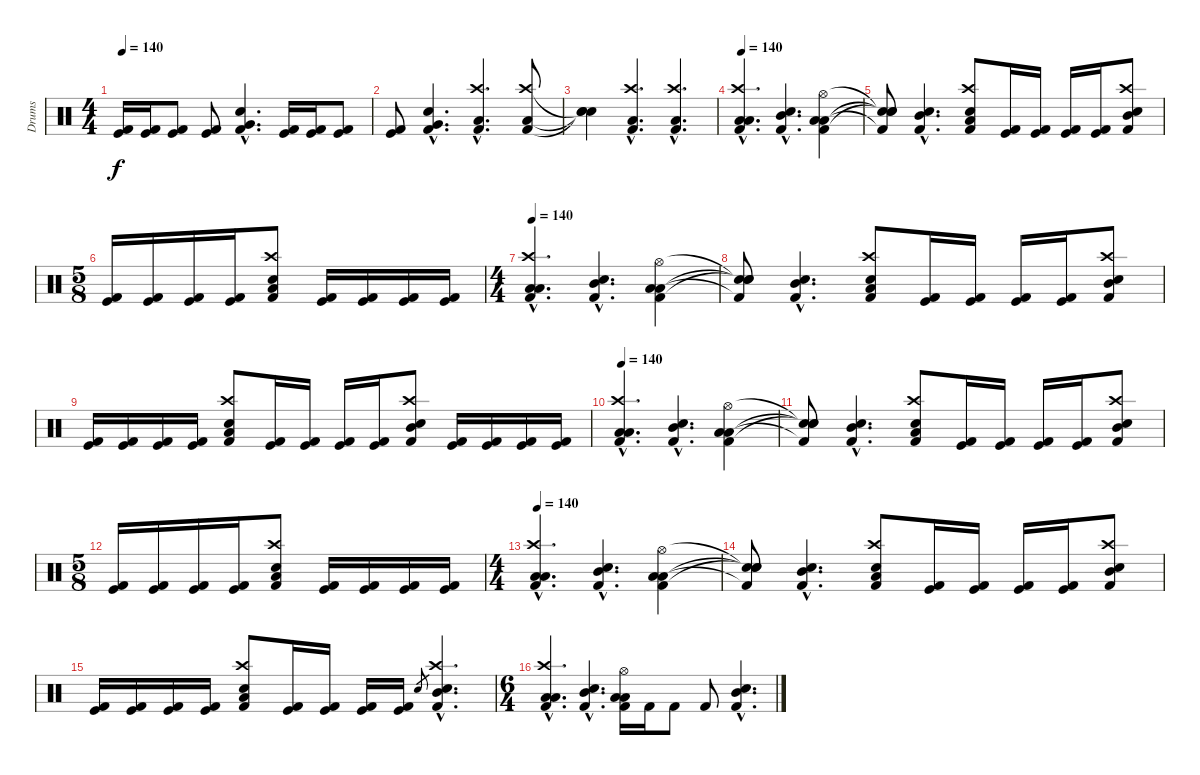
\track ("Drums" "Drums") {instrument percussion}
\staff {score}
\articulation defaults
\ts (4 4)
\tempo 140
\clef neutral
\ks c
("Kick (hit)" "Kick (hit) 2").16{dy f} ("Kick (hit)" "Kick (hit) 2").16 ("Kick (hit)" "Kick (hit) 2").8 ("Kick (hit)" "Kick (hit) 2").8 ("Very Low Tom (hit)"{hac} "Electric Snare (hit)"{hac} "Kick (hit) 2"{hac}).4{d} ("Kick (hit)" "Kick (hit) 2").16 ("Kick (hit)" "Kick (hit) 2").16 ("Kick (hit)" "Kick (hit) 2").8 |
("Kick (hit)" "Kick (hit) 2").8 ("Very Low Tom (hit)"{hac} "Electric Snare (hit)"{hac} "Kick (hit) 2"{hac}).4{d} ("Crash high (hit)"{hac} "Low Tom (hit)"{hac} "Kick (hit) 2"{hac}).4{d} ("Crash high (hit)" "Low Tom (hit)" "Kick (hit) 2").8 |
("Snare (hit)"{t} "Snare (hit)"{t} "Snare (hit)"{t}).4 ("Crash high (hit)"{hac} "Low Tom (hit)"{hac} "Kick (hit) 2"{hac}).4{d} ("Crash high (hit)"{hac} "Low Tom (hit)"{hac} "Kick (hit) 2"{hac}).4{d} |
\tempo 140
("Crash high (hit)"{hac} "Low Tom (hit)"{hac} "Low Tom (hit)"{hac} "Kick (hit) 2"{hac}).4{d} ("Mid Tom (hit)"{hac} "Snare (hit) 2"{hac} "Kick (hit) 2"{hac}).4{d} ("Hi-Hat (open)" "Low Tom (hit)" "Low Tom (hit)" "Kick (hit) 2").4 |
("Snare (hit)"{t} "Snare (hit)"{t} "Kick (hit) 2"{t} "Snare (hit)"{t}).8 ("Mid Tom (hit)"{hac} "Snare (hit) 2"{hac} "Kick (hit) 2"{hac}).4{d} ("Crash high (hit)" "Snare (hit) 2" "Low Tom (hit)" "Kick (hit) 2").8 ("Kick (hit)" "Kick (hit) 2").16 ("Kick (hit)" "Kick (hit) 2").16 ("Kick (hit)" "Kick (hit) 2").16 ("Kick (hit)" "Kick (hit) 2").16 ("Crash high (hit)" "Snare (hit) 2" "Mid Tom (hit)" "Kick (hit) 2").8 |
\ts (5 8)
("Kick (hit)" "Kick (hit) 2").16 ("Kick (hit)" "Kick (hit) 2").16 ("Kick (hit)" "Kick (hit) 2").16 ("Kick (hit)" "Kick (hit) 2").16 ("Crash high (hit)" "Snare (hit) 2" "Low Tom (hit)" "Kick (hit) 2").8 ("Kick (hit)" "Kick (hit) 2").16 ("Kick (hit)" "Kick (hit) 2").16 ("Kick (hit)" "Kick (hit) 2").16 ("Kick (hit)" "Kick (hit) 2").16 |
\ts (4 4)
\tempo 140
("Crash high (hit)"{hac} "Low Tom (hit)"{hac} "Low Tom (hit)"{hac} "Kick (hit) 2"{hac}).4{d} ("Mid Tom (hit)"{hac} "Snare (hit) 2"{hac} "Kick (hit) 2"{hac}).4{d} ("Hi-Hat (open)" "Low Tom (hit)" "Low Tom (hit)" "Kick (hit) 2").4 |
("Snare (hit)"{t} "Snare (hit)"{t} "Kick (hit) 2"{t} "Snare (hit)"{t}).8 ("Mid Tom (hit)"{hac} "Snare (hit) 2"{hac} "Kick (hit) 2"{hac}).4{d} ("Crash high (hit)" "Snare (hit) 2" "Low Tom (hit)" "Kick (hit) 2").8 ("Kick (hit)" "Kick (hit) 2").16 ("Kick (hit)" "Kick (hit) 2").16 ("Kick (hit)" "Kick (hit) 2").16 ("Kick (hit)" "Kick (hit) 2").16 ("Crash high (hit)" "Snare (hit) 2" "Mid Tom (hit)" "Kick (hit) 2").8 |
("Kick (hit)" "Kick (hit) 2").16 ("Kick (hit)" "Kick (hit) 2").16 ("Kick (hit)" "Kick (hit) 2").16 ("Kick (hit)" "Kick (hit) 2").16 ("Crash high (hit)" "Snare (hit) 2" "Low Tom (hit)" "Kick (hit) 2").8 ("Kick (hit)" "Kick (hit) 2").16 ("Kick (hit)" "Kick (hit) 2").16 ("Kick (hit)" "Kick (hit) 2").16 ("Kick (hit)" "Kick (hit) 2").16 ("Crash high (hit)" "Snare (hit) 2" "Mid Tom (hit)" "Kick (hit) 2").8 ("Kick (hit)" "Kick (hit) 2").16 ("Kick (hit)" "Kick (hit) 2").16 ("Kick (hit)" "Kick (hit) 2").16 ("Kick (hit)" "Kick (hit) 2").16 |
\tempo 140
("Crash high (hit)"{hac} "Low Tom (hit)"{hac} "Low Tom (hit)"{hac} "Kick (hit) 2"{hac}).4{d} ("Mid Tom (hit)"{hac} "Snare (hit) 2"{hac} "Kick (hit) 2"{hac}).4{d} ("Hi-Hat (open)" "Low Tom (hit)" "Low Tom (hit)" "Kick (hit) 2").4 |
("Snare (hit)"{t} "Snare (hit)"{t} "Kick (hit) 2"{t} "Snare (hit)"{t}).8 ("Mid Tom (hit)"{hac} "Snare (hit) 2"{hac} "Kick (hit) 2"{hac}).4{d} ("Crash high (hit)" "Snare (hit) 2" "Low Tom (hit)" "Kick (hit) 2").8 ("Kick (hit)" "Kick (hit) 2").16 ("Kick (hit)" "Kick (hit) 2").16 ("Kick (hit)" "Kick (hit) 2").16 ("Kick (hit)" "Kick (hit) 2").16 ("Crash high (hit)" "Snare (hit) 2" "Mid Tom (hit)" "Kick (hit) 2").8 |
\ts (5 8)
("Kick (hit)" "Kick (hit) 2").16 ("Kick (hit)" "Kick (hit) 2").16 ("Kick (hit)" "Kick (hit) 2").16 ("Kick (hit)" "Kick (hit) 2").16 ("Crash high (hit)" "Snare (hit) 2" "Low Tom (hit)" "Kick (hit) 2").8 ("Kick (hit)" "Kick (hit) 2").16 ("Kick (hit)" "Kick (hit) 2").16 ("Kick (hit)" "Kick (hit) 2").16 ("Kick (hit)" "Kick (hit) 2").16 |
\ts (4 4)
\tempo 140
("Crash high (hit)"{hac} "Low Tom (hit)"{hac} "Low Tom (hit)"{hac} "Kick (hit) 2"{hac}).4{d} ("Mid Tom (hit)"{hac} "Snare (hit) 2"{hac} "Kick (hit) 2"{hac}).4{d} ("Hi-Hat (open)" "Low Tom (hit)" "Low Tom (hit)" "Kick (hit) 2").4 |
("Snare (hit)"{t} "Snare (hit)"{t} "Kick (hit) 2"{t} "Snare (hit)"{t}).8 ("Mid Tom (hit)"{hac} "Snare (hit) 2"{hac} "Kick (hit) 2"{hac}).4{d} ("Crash high (hit)" "Snare (hit) 2" "Low Tom (hit)" "Kick (hit) 2").8 ("Kick (hit)" "Kick (hit) 2").16 ("Kick (hit)" "Kick (hit) 2").16 ("Kick (hit)" "Kick (hit) 2").16 ("Kick (hit)" "Kick (hit) 2").16 ("Crash high (hit)" "Snare (hit) 2" "Mid Tom (hit)" "Kick (hit) 2").8 |
("Kick (hit)" "Kick (hit) 2").16 ("Kick (hit)" "Kick (hit) 2").16 ("Kick (hit)" "Kick (hit) 2").16 ("Kick (hit)" "Kick (hit) 2").16 ("Crash high (hit)" "Snare (hit) 2" "Low Tom (hit)" "Kick (hit) 2").8 ("Kick (hit)" "Kick (hit) 2").16 ("Kick (hit)" "Kick (hit) 2").16 ("Kick (hit)" "Kick (hit) 2").16 ("Kick (hit)" "Kick (hit) 2").16 "Electric Snare (hit)".8{gr} ("Crash high (hit)"{hac} "Snare (hit) 2"{hac} "Mid Tom (hit)"{hac} "Kick (hit) 2"{hac}).4{d} |
\ts (6 4)
("Crash high (hit)"{hac} "Low Tom (hit)"{hac} "Low Tom (hit)"{hac} "Kick (hit) 2"{hac}).4{d} ("Snare (hit) 2"{hac} "Mid Tom (hit)"{hac} "Kick (hit) 2"{hac}).4{d} ("Hi-Hat (open)" "Low Tom (hit)" "Low Tom (hit)" "Kick (hit) 2").16 "Kick (hit) 2".16 "Kick (hit) 2".8 "Kick (hit) 2".8 ("Snare (hit) 2"{hac} "Mid Tom (hit)"{hac} "Kick (hit) 2"{hac}).4{d}
